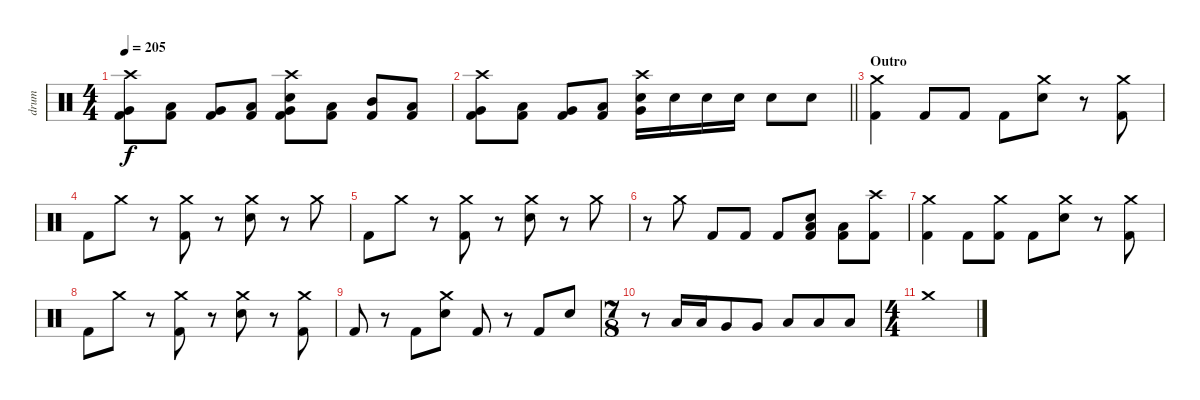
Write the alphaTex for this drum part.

\track ("drum" "drum") {instrument percussion}
\staff {score}
\articulation defaults
\ts (4 4)
\tempo 205
\clef neutral
\ks c
("Crash high (hit)" "Very Low Tom (hit)" "Kick (hit) 2").8{dy f} ("Low Tom (hit)" "Kick (hit) 2").8 ("Very Low Tom (hit)" "Kick (hit) 2").8 ("Low Floor Tom (hit)" "Kick (hit) 2").8 ("Crash high (hit)" "Very Low Tom (hit)" "Electric Snare (hit)" "Kick (hit) 2").8 ("Low Tom (hit)" "Kick (hit) 2").8 ("Mid Tom (hit)" "Kick (hit) 2").8 ("Low Tom (hit)" "Kick (hit) 2").8 |
\barLineRight lightlight
("Crash high (hit)" "Very Low Tom (hit)" "Kick (hit) 2").8 ("Low Tom (hit)" "Kick (hit) 2").8 ("Very Low Tom (hit)" "Kick (hit) 2").8 ("Low Floor Tom (hit)" "Kick (hit) 2").8 ("Crash high (hit)" "Very Low Tom (hit)" "Electric Snare (hit)").16 "Electric Snare (hit)".16 "Electric Snare (hit)".16 "Electric Snare (hit)".16 "Electric Snare (hit)".8 "Electric Snare (hit)".8 |
\section ("" "Outro")
("Crash medium (hit)" "Kick (hit) 2").4 "Kick (hit) 2".8 "Kick (hit) 2".8 "Kick (hit) 2".8 ("Crash medium (hit)" "Electric Snare (hit)").8 r.8 ("Crash medium (hit)" "Kick (hit) 2").8 |
"Kick (hit) 2".8 "Crash medium (hit)".8 r.8 ("Crash medium (hit)" "Kick (hit) 2").8 r.8 ("Crash medium (hit)" "Electric Snare (hit)").8 r.8 "Crash medium (hit)".8 |
"Kick (hit) 2".8 "Crash medium (hit)".8 r.8 ("Crash medium (hit)" "Kick (hit) 2").8 r.8 ("Crash medium (hit)" "Electric Snare (hit)").8 r.8 "Crash medium (hit)".8 |
r.8 "Crash medium (hit)".8 "Kick (hit) 2".8 "Kick (hit) 2".8 "Kick (hit) 2".8 ("Electric Snare (hit)" "Low Floor Tom (hit)" "Kick (hit) 2").8 ("Low Floor Tom (hit)" "Kick (hit) 2").8 ("Crash high (hit)" "Kick (hit) 2").8 |
("Crash medium (hit)" "Kick (hit) 2").4 "Kick (hit) 2".8 ("Crash medium (hit)" "Kick (hit) 2").8 "Kick (hit) 2".8 ("Crash medium (hit)" "Electric Snare (hit)").8 r.8 ("Crash medium (hit)" "Kick (hit) 2").8 |
"Kick (hit) 2".8 "Crash medium (hit)".8 r.8 ("Crash medium (hit)" "Kick (hit) 2").8 r.8 ("Crash medium (hit)" "Electric Snare (hit)").8 r.8 ("Crash medium (hit)" "Kick (hit) 2").8 |
"Kick (hit) 2".8 r.8 "Kick (hit) 2".8 ("Crash medium (hit)" "Electric Snare (hit)").8 "Kick (hit) 2".8 r.8 "Kick (hit) 2".8 "Electric Snare (hit)".8 |
\ts (7 8)
r.8 "Low Tom (hit)".16 "Low Tom (hit)".16 "Very Low Tom (hit)".8 "Very Low Tom (hit)".8 "Low Floor Tom (hit)".8 "Low Floor Tom (hit)".8 "Low Floor Tom (hit)".8 |
\ts (4 4)
"Crash medium (hit)".1
